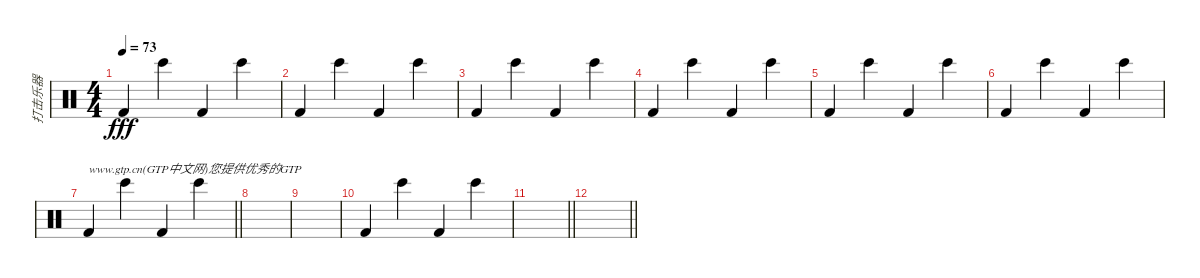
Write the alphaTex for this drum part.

\track ("打击乐器" "打击乐器") {instrument percussion}
\staff {score}
\articulation defaults
\ts (4 4)
\tempo 73
\clef neutral
\ks c "Kick (hit) 2".4{dy fff} "Bongo High (hit)".4 "Kick (hit) 2".4 "Bongo High (hit)".4
|
"Kick (hit) 2".4 "Bongo High (hit)".4 "Kick (hit) 2".4 "Bongo High (hit)".4 |
"Kick (hit) 2".4 "Bongo High (hit)".4 "Kick (hit) 2".4 "Bongo High (hit)".4 |
"Kick (hit) 2".4 "Bongo High (hit)".4 "Kick (hit) 2".4 "Bongo High (hit)".4 |
"Kick (hit) 2".4 "Bongo High (hit)".4 "Kick (hit) 2".4 "Bongo High (hit)".4 |
"Kick (hit) 2".4 "Bongo High (hit)".4 "Kick (hit) 2".4 "Bongo High (hit)".4 |
\barLineRight lightlight "Kick (hit) 2".4{txt "www.gtp.cn(GTP中文网)您提供优秀的GTP"} "Bongo High (hit)".4 "Kick (hit) 2".4 "Bongo High (hit)".4
|
|
|
"Kick (hit) 2".4 "Bongo High (hit)".4 "Kick (hit) 2".4 "Bongo High (hit)".4 |
\barLineRight lightlight
|
\barLineRight lightlight
